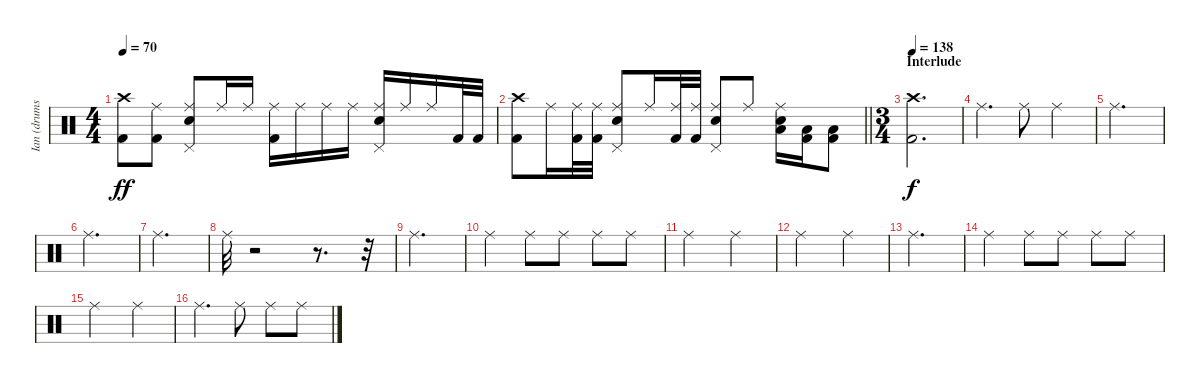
\track ("Ian (drums)" "Ian (drums") {instrument percussion}
\staff {score}
\articulation defaults
\ts (4 4)
\tempo 70
\clef neutral
\ks c
("Kick (hit) 2" "Crash high (hit)").8{dy ff} ("Kick (hit) 2" "Ride (middle)").8 ("Snare (hit) 2" "Pedal Hi-Hat (hit)" "Ride (middle)").8 "Ride (middle)".16 "Ride (middle)".16 ("Kick (hit) 2" "Ride (middle)").16 "Ride (middle)".16 "Ride (middle)".16 "Ride (middle)".16 ("Snare (hit) 2" "Pedal Hi-Hat (hit)" "Ride (middle)").16 "Ride (middle)".16 "Ride (middle)".16 "Kick (hit) 2".32 "Kick (hit) 2".32 |
\barLineRight lightlight
("Kick (hit) 2" "Crash high (hit)").8 "Ride (middle)".16 ("Kick (hit) 2" "Ride (middle)").32 ("Kick (hit) 2" "Ride (middle)").32 ("Snare (hit) 2" "Pedal Hi-Hat (hit)" "Ride (middle)").8 "Ride (middle)".16 ("Kick (hit) 2" "Ride (middle)").32 ("Kick (hit) 2" "Ride (middle)").32 ("Snare (hit) 2" "Pedal Hi-Hat (hit)" "Ride (middle)").8 "Ride (middle)".8 ("Snare (hit) 2" "Low Tom (hit)" "Ride (middle)").16 ("Kick (hit) 2" "Low Floor Tom (hit)").16 ("Kick (hit) 2" "Low Floor Tom (hit)").8 |
\ts (3 4)
\section ("" "Interlude")
\tempo 138
("Kick (hit) 2" "Crash high (hit)").2{d dy f} |
"Ride (middle)".4{d} "Ride (middle)".8 "Ride (middle)".4 |
"Ride (middle)".2{d} |
"Ride (middle)".2{d} |
"Ride (middle)".2{d} |
"Ride (middle)".32 r.2 r.8{d} r.32 |
"Ride (middle)".2{d} |
"Ride (middle)".4 "Ride (middle)".8 "Ride (middle)".8 "Ride (middle)".8 "Ride (middle)".8 |
"Ride (middle)".2 "Ride (middle)".4 |
"Ride (middle)".2 "Ride (middle)".4 |
"Ride (middle)".2{d} |
"Ride (middle)".4 "Ride (middle)".8 "Ride (middle)".8 "Ride (middle)".8 "Ride (middle)".8 |
"Ride (middle)".2 "Ride (middle)".4 |
"Ride (middle)".4{d} "Ride (middle)".8 "Ride (middle)".8 "Ride (middle)".8
